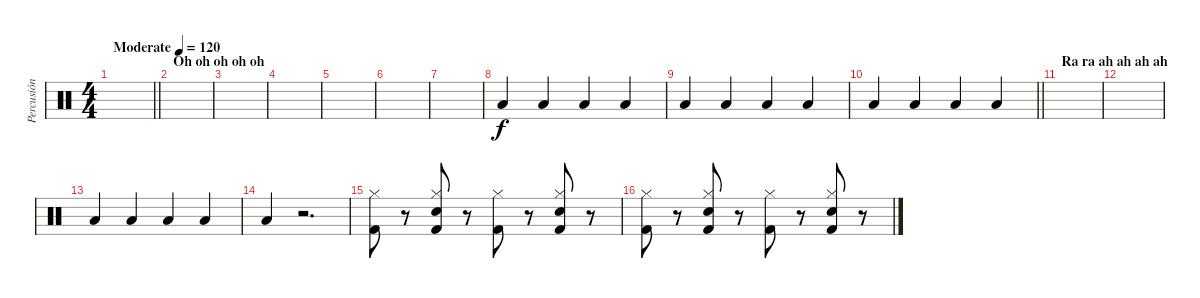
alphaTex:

\track ("Percusión" "Percusión") {instrument percussion}
\staff {score}
\articulation defaults
\ts (4 4)
\tempo (120 "Moderate")
\clef neutral
\barLineRight lightlight
\ks c
|
\section ("" "Oh oh oh oh oh")
|
|
|
|
|
|
"Low Tom (hit)".4 "Low Tom (hit)".4 "Low Tom (hit)".4 "Low Tom (hit)".4 |
"Low Tom (hit)".4 "Low Tom (hit)".4 "Low Tom (hit)".4 "Low Tom (hit)".4 |
\barLineRight lightlight "Low Tom (hit)".4 "Low Tom (hit)".4 "Low Tom (hit)".4 "Low Tom (hit)".4
|
\section ("" "Ra ra ah ah ah ah")
|
|
"Low Tom (hit)".4 "Low Tom (hit)".4 "Low Tom (hit)".4 "Low Tom (hit)".4 |
"Low Tom (hit)".4 r.2{d} |
("Kick (hit) 2" "Hi-Hat (closed)").8 r.8 ("Kick (hit) 2" "Hi-Hat (closed)" "Snare (hit) 2").8 r.8 ("Kick (hit) 2" "Hi-Hat (closed)").8 r.8 ("Kick (hit) 2" "Hi-Hat (closed)" "Snare (hit) 2").8 r.8 |
("Kick (hit) 2" "Hi-Hat (closed)").8 r.8 ("Kick (hit) 2" "Hi-Hat (closed)" "Snare (hit) 2").8 r.8 ("Kick (hit) 2" "Hi-Hat (closed)").8 r.8 ("Kick (hit) 2" "Hi-Hat (closed)" "Snare (hit) 2").8 r.8
